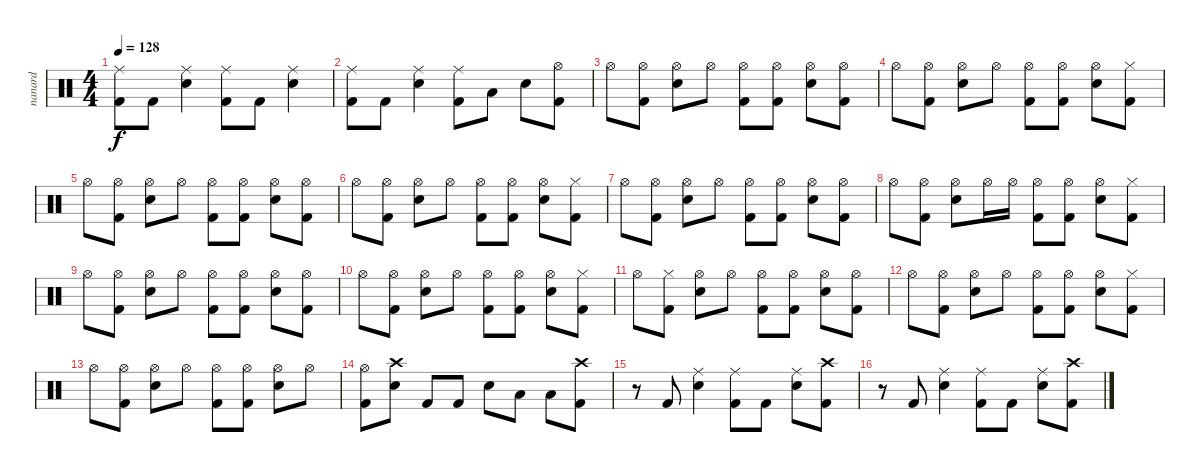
\track ("nanard" "nanard") {instrument percussion}
\staff {score}
\articulation defaults
\ts (4 4)
\tempo 128
\clef neutral
\ks c
("Ride (middle)" "Kick (hit) 2").8{dy f} "Kick (hit) 2".8 ("Ride (middle)" "Electric Snare (hit)").4 ("Ride (middle)" "Kick (hit) 2").8 "Kick (hit) 2".8 ("Ride (middle)" "Electric Snare (hit)").4 |
("Ride (middle)" "Kick (hit) 2").8 "Kick (hit) 2".8 ("Ride (middle)" "Electric Snare (hit)").4 ("Ride (middle)" "Kick (hit) 2").8 "Low Tom (hit)".8 "Electric Snare (hit)".8 ("Hi-Hat (open)" "Kick (hit) 2").8 |
"Hi-Hat (open)".8 ("Hi-Hat (open)" "Kick (hit) 2").8 ("Hi-Hat (open)" "Electric Snare (hit)").8 "Hi-Hat (open)".8 ("Hi-Hat (open)" "Kick (hit) 2").8 ("Hi-Hat (open)" "Kick (hit) 2").8 ("Hi-Hat (open)" "Electric Snare (hit)").8 ("Hi-Hat (open)" "Kick (hit) 2").8 |
"Hi-Hat (open)".8 ("Hi-Hat (open)" "Kick (hit) 2").8 ("Hi-Hat (open)" "Electric Snare (hit)").8 "Hi-Hat (open)".8 ("Hi-Hat (open)" "Kick (hit) 2").8 ("Hi-Hat (open)" "Kick (hit) 2").8 ("Hi-Hat (open)" "Electric Snare (hit)").8 ("Hi-Hat (closed)" "Kick (hit) 2").8 |
"Hi-Hat (open)".8 ("Hi-Hat (open)" "Kick (hit) 2").8 ("Hi-Hat (open)" "Electric Snare (hit)").8 "Hi-Hat (open)".8 ("Hi-Hat (open)" "Kick (hit) 2").8 ("Hi-Hat (open)" "Kick (hit) 2").8 ("Hi-Hat (open)" "Electric Snare (hit)").8 ("Hi-Hat (open)" "Kick (hit) 2").8 |
"Hi-Hat (open)".8 ("Hi-Hat (open)" "Kick (hit) 2").8 ("Hi-Hat (open)" "Electric Snare (hit)").8 "Hi-Hat (open)".8 ("Hi-Hat (open)" "Kick (hit) 2").8 ("Hi-Hat (open)" "Kick (hit) 2").8 ("Hi-Hat (open)" "Electric Snare (hit)").8 ("Hi-Hat (closed)" "Kick (hit) 2").8 |
"Hi-Hat (open)".8 ("Hi-Hat (open)" "Kick (hit) 2").8 ("Hi-Hat (open)" "Electric Snare (hit)").8 "Hi-Hat (open)".8 ("Hi-Hat (open)" "Kick (hit) 2").8 ("Hi-Hat (open)" "Kick (hit) 2").8 ("Hi-Hat (open)" "Electric Snare (hit)").8 ("Hi-Hat (open)" "Kick (hit) 2").8 |
"Hi-Hat (open)".8 ("Hi-Hat (open)" "Kick (hit) 2").8 ("Hi-Hat (open)" "Electric Snare (hit)").8 "Hi-Hat (open)".16 "Hi-Hat (open)".16 ("Hi-Hat (open)" "Kick (hit) 2").8 ("Hi-Hat (open)" "Kick (hit) 2").8 ("Hi-Hat (open)" "Electric Snare (hit)").8 ("Hi-Hat (closed)" "Kick (hit) 2").8 |
"Hi-Hat (open)".8 ("Hi-Hat (open)" "Kick (hit) 2").8 ("Hi-Hat (open)" "Electric Snare (hit)").8 "Hi-Hat (open)".8 ("Hi-Hat (open)" "Kick (hit) 2").8 ("Hi-Hat (open)" "Kick (hit) 2").8 ("Hi-Hat (open)" "Electric Snare (hit)").8 ("Hi-Hat (open)" "Kick (hit) 2").8 |
"Hi-Hat (open)".8 ("Hi-Hat (open)" "Kick (hit) 2").8 ("Hi-Hat (open)" "Electric Snare (hit)").8 "Hi-Hat (open)".8 ("Hi-Hat (open)" "Kick (hit) 2").8 ("Hi-Hat (open)" "Kick (hit) 2").8 ("Hi-Hat (open)" "Electric Snare (hit)").8 ("Hi-Hat (closed)" "Kick (hit) 2").8 |
"Hi-Hat (open)".8 ("Hi-Hat (closed)" "Kick (hit) 2").8 ("Hi-Hat (open)" "Electric Snare (hit)").8 "Hi-Hat (open)".8 ("Hi-Hat (open)" "Kick (hit) 2").8 ("Hi-Hat (open)" "Kick (hit) 2").8 ("Hi-Hat (open)" "Electric Snare (hit)").8 ("Hi-Hat (open)" "Kick (hit) 2").8 |
"Hi-Hat (open)".8 ("Hi-Hat (open)" "Kick (hit) 2").8 ("Hi-Hat (open)" "Electric Snare (hit)").8 "Hi-Hat (open)".8 ("Hi-Hat (open)" "Kick (hit) 2").8 ("Hi-Hat (open)" "Kick (hit) 2").8 ("Hi-Hat (open)" "Electric Snare (hit)").8 ("Hi-Hat (closed)" "Kick (hit) 2").8 |
"Hi-Hat (open)".8 ("Hi-Hat (open)" "Kick (hit) 2").8 ("Hi-Hat (open)" "Electric Snare (hit)").8 "Hi-Hat (open)".8 ("Hi-Hat (open)" "Kick (hit) 2").8 ("Hi-Hat (open)" "Kick (hit) 2").8 ("Hi-Hat (open)" "Electric Snare (hit)").8 "Hi-Hat (open)".8 |
("Hi-Hat (open)" "Kick (hit) 2").8 ("Crash high (hit)" "Electric Snare (hit)").8 "Kick (hit) 2".8 "Kick (hit) 2".8 "Electric Snare (hit)".8 "Low Tom (hit)".8 "Low Floor Tom (hit)".8 ("Crash high (hit)" "Kick (hit) 2").8 |
r.8 "Kick (hit) 2".8 ("Ride (middle)" "Electric Snare (hit)").4 ("Ride (middle)" "Kick (hit) 2").8 "Kick (hit) 2".8 ("Ride (middle)" "Electric Snare (hit)").8 ("Crash high (hit)" "Kick (hit) 2").8 |
r.8 "Kick (hit) 2".8 ("Ride (middle)" "Electric Snare (hit)").4 ("Ride (middle)" "Kick (hit) 2").8 "Kick (hit) 2".8 ("Ride (middle)" "Electric Snare (hit)").8 ("Crash high (hit)" "Kick (hit) 2").8
